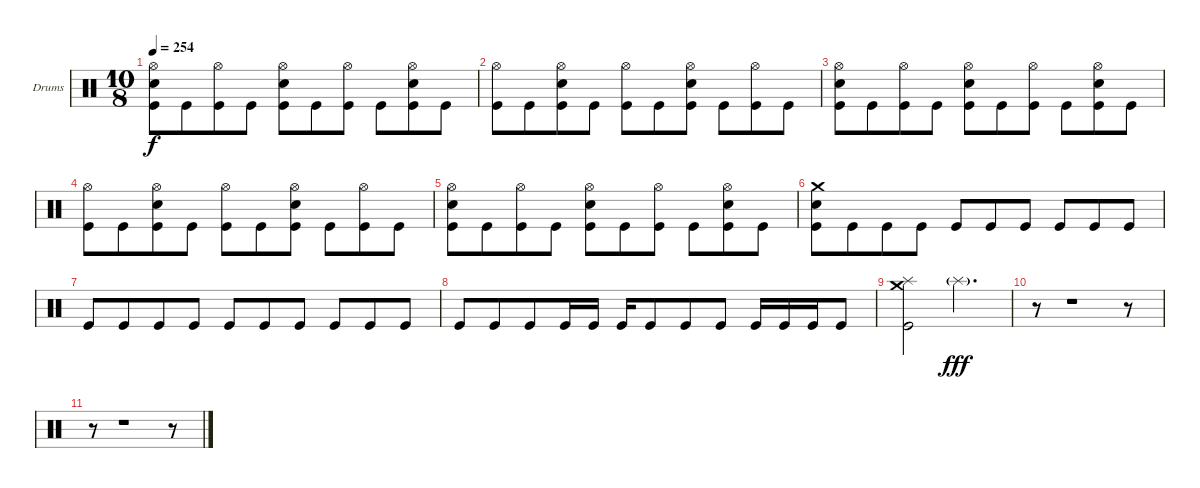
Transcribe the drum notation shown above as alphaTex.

\bracketExtendMode groupsimilarinstruments
\firstSystemTrackNameOrientation horizontal
\otherSystemsTrackNameOrientation horizontal
\track ("Drumkit" "Drums") {instrument percussion}
\staff {score}
\articulation defaults
\ts (10 8)
\tempo 254
\clef neutral
\ks c
("Hi-Hat (open)" "Snare (hit) 2" "Kick (hit)").8{dy f} "Kick (hit)".8 ("Hi-Hat (open)" "Kick (hit)").8 "Kick (hit)".8 ("Hi-Hat (open)" "Snare (hit) 2" "Kick (hit)").8 "Kick (hit)".8 ("Hi-Hat (open)" "Kick (hit)").8 "Kick (hit)".8 ("Hi-Hat (open)" "Snare (hit) 2" "Kick (hit)").8 "Kick (hit)".8 |
("Hi-Hat (open)" "Kick (hit)").8 "Kick (hit)".8 ("Hi-Hat (open)" "Snare (hit) 2" "Kick (hit)").8 "Kick (hit)".8 ("Hi-Hat (open)" "Kick (hit)").8 "Kick (hit)".8 ("Hi-Hat (open)" "Snare (hit) 2" "Kick (hit)").8 "Kick (hit)".8 ("Hi-Hat (open)" "Kick (hit)").8 "Kick (hit)".8 |
("Hi-Hat (open)" "Snare (hit) 2" "Kick (hit)").8 "Kick (hit)".8 ("Hi-Hat (open)" "Kick (hit)").8 "Kick (hit)".8 ("Hi-Hat (open)" "Snare (hit) 2" "Kick (hit)").8 "Kick (hit)".8 ("Hi-Hat (open)" "Kick (hit)").8 "Kick (hit)".8 ("Hi-Hat (open)" "Snare (hit) 2" "Kick (hit)").8 "Kick (hit)".8 |
("Hi-Hat (open)" "Kick (hit)").8 "Kick (hit)".8 ("Hi-Hat (open)" "Snare (hit) 2" "Kick (hit)").8 "Kick (hit)".8 ("Hi-Hat (open)" "Kick (hit)").8 "Kick (hit)".8 ("Hi-Hat (open)" "Snare (hit) 2" "Kick (hit)").8 "Kick (hit)".8 ("Hi-Hat (open)" "Kick (hit)").8 "Kick (hit)".8 |
("Hi-Hat (open)" "Snare (hit) 2" "Kick (hit)").8 "Kick (hit)".8 ("Hi-Hat (open)" "Kick (hit)").8 "Kick (hit)".8 ("Hi-Hat (open)" "Snare (hit) 2" "Kick (hit)").8 "Kick (hit)".8 ("Hi-Hat (open)" "Kick (hit)").8 "Kick (hit)".8 ("Hi-Hat (open)" "Snare (hit) 2" "Kick (hit)").8 "Kick (hit)".8 |
("Crash medium (hit)" "Snare (hit) 2" "Kick (hit)").8 "Kick (hit)".8 "Kick (hit)".8 "Kick (hit)".8 "Kick (hit)".8 "Kick (hit)".8 "Kick (hit)".8 "Kick (hit)".8 "Kick (hit)".8 "Kick (hit)".8 |
"Kick (hit)".8 "Kick (hit)".8 "Kick (hit)".8 "Kick (hit)".8 "Kick (hit)".8 "Kick (hit)".8 "Kick (hit)".8 "Kick (hit)".8 "Kick (hit)".8 "Kick (hit)".8 |
"Kick (hit)".8 "Kick (hit)".8 "Kick (hit)".8 "Kick (hit)".16 "Kick (hit)".16 "Kick (hit)".16 "Kick (hit)".8 "Kick (hit)".8 "Kick (hit)".8 "Kick (hit)".16 "Kick (hit)".16 "Kick (hit)".16 "Kick (hit)".8 |
("Splash (hit)" "Crash medium (hit)" "Kick (hit)").2 "Splash (hit)"{g}.2{d dy fff} |
r.8 r.1 r.8 |
r.8 r.1 r.8
